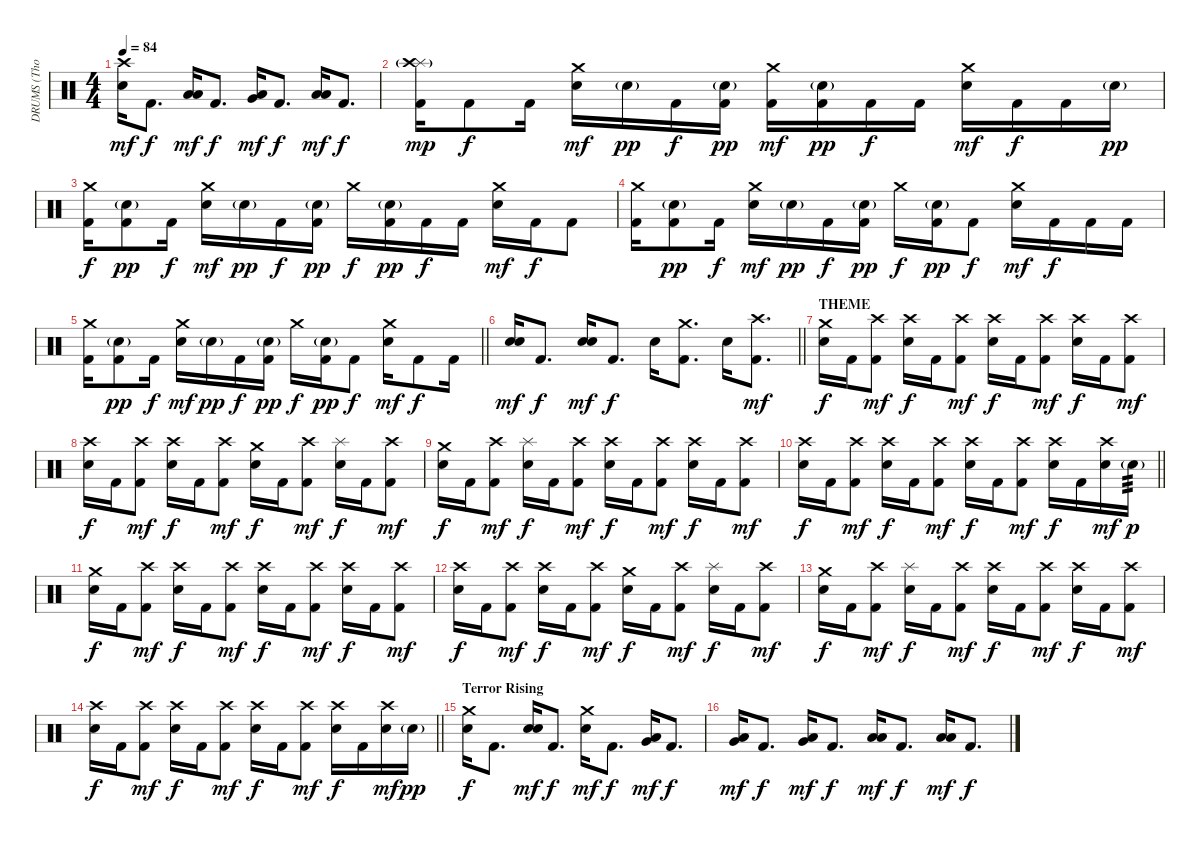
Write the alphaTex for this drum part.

\track ("DRUMS (Thomas Haake)" "DRUMS (Tho") {instrument percussion}
\staff {score}
\articulation defaults
\ts (4 4)
\tempo 84
\clef neutral
\ks c
("Crash high (hit)" "Electric Snare (hit)").16{dy mf} "Kick (hit) 2".8{d dy f} ("Low Tom (hit)" "Low Floor Tom (hit)").16{bd 30 dy mf} "Kick (hit) 2".8{d dy f} ("Very Low Tom (hit)" "Low Floor Tom (hit)").16{dy mf} "Kick (hit) 2".8{d dy f} ("Low Floor Tom (hit)" "Low Floor Tom (hit)").16{dy mf} "Kick (hit) 2".8{d dy f} |
("Splash (hit)" "Crash high (hit)"{g} "Kick (hit) 2").16{dy mp} "Kick (hit) 2".8{dy f} "Kick (hit) 2".16 ("Crash medium (hit)" "Electric Snare (hit)").16{dy mf} "Electric Snare (hit)"{g}.16{dy pp} "Kick (hit) 2".16{dy f} ("Electric Snare (hit)"{g} "Kick (hit) 2").16{dy pp} ("Crash medium (hit)" "Kick (hit) 2").16{dy mf} ("Electric Snare (hit)"{g} "Kick (hit) 2").16{dy pp} "Kick (hit) 2".16{dy f} "Kick (hit) 2".16 ("Crash medium (hit)" "Electric Snare (hit)").16{dy mf} "Kick (hit) 2".16{dy f} "Kick (hit) 2".16 "Electric Snare (hit)"{g}.16{dy pp} |
("Crash medium (hit)" "Kick (hit) 2").16{dy f} ("Electric Snare (hit)"{g} "Kick (hit) 2").8{dy pp} "Kick (hit) 2".16{dy f} ("Crash medium (hit)" "Electric Snare (hit)").16{dy mf} "Electric Snare (hit)"{g}.16{dy pp} "Kick (hit) 2".16{dy f} ("Electric Snare (hit)"{g} "Kick (hit) 2").16{dy pp} "Crash medium (hit)".16{dy f} ("Electric Snare (hit)"{g} "Kick (hit) 2").16{dy pp} "Kick (hit) 2".16{dy f} "Kick (hit) 2".16 ("Crash medium (hit)" "Electric Snare (hit)").16{dy mf} "Kick (hit) 2".16{dy f} "Kick (hit) 2".8 |
("Crash medium (hit)" "Kick (hit) 2").16 ("Electric Snare (hit)"{g} "Kick (hit) 2").8{dy pp} "Kick (hit) 2".16{dy f} ("Crash medium (hit)" "Electric Snare (hit)").16{dy mf} "Electric Snare (hit)"{g}.16{dy pp} "Kick (hit) 2".16{dy f} ("Electric Snare (hit)"{g} "Kick (hit) 2").16{dy pp} "Crash medium (hit)".16{dy f} ("Electric Snare (hit)"{g} "Kick (hit) 2").16{dy pp} "Kick (hit) 2".8{dy f} ("Crash medium (hit)" "Electric Snare (hit)").16{dy mf} "Kick (hit) 2".16{dy f} "Kick (hit) 2".16 "Kick (hit) 2".16 |
\barLineRight lightlight
("Crash medium (hit)" "Kick (hit) 2").16 ("Electric Snare (hit)"{g} "Kick (hit) 2").8{dy pp} "Kick (hit) 2".16{dy f} ("Crash medium (hit)" "Electric Snare (hit)").16{dy mf} "Electric Snare (hit)"{g}.16{dy pp} "Kick (hit) 2".16{dy f} ("Electric Snare (hit)"{g} "Kick (hit) 2").16{dy pp} "Crash medium (hit)".16{dy f} ("Electric Snare (hit)"{g} "Kick (hit) 2").16{dy pp} "Kick (hit) 2".8{dy f} ("Crash medium (hit)" "Electric Snare (hit)").16{dy mf} "Kick (hit) 2".8{dy f} "Kick (hit) 2".16 |
\barLineRight lightlight
("Electric Snare (hit)" "Electric Snare (hit)").16{bd 240 dy mf} "Kick (hit) 2".8{d dy f} ("Electric Snare (hit)" "Electric Snare (hit)").16{bd 240 dy mf} "Kick (hit) 2".8{d dy f} "Electric Snare (hit)".16 ("Crash medium (hit)" "Kick (hit) 2").8{d} "Electric Snare (hit)".16 ("Crash high (hit)" "Kick (hit) 2").8{d dy mf} |
\section ("" "THEME")
("Crash medium (hit)" "Electric Snare (hit)").16{dy f} "Kick (hit) 2".16 ("Crash high (hit)" "Kick (hit) 2").8{dy mf} ("Crash high (hit)" "Electric Snare (hit)").16{dy f} "Kick (hit) 2".16 ("Crash high (hit)" "Kick (hit) 2").8{dy mf} ("Crash high (hit)" "Electric Snare (hit)").16{dy f} "Kick (hit) 2".16 ("Crash high (hit)" "Kick (hit) 2").8{dy mf} ("Crash high (hit)" "Electric Snare (hit)").16{dy f} "Kick (hit) 2".16 ("Crash high (hit)" "Kick (hit) 2").8{dy mf} |
("Crash high (hit)" "Electric Snare (hit)").16{dy f} "Kick (hit) 2".16 ("Crash high (hit)" "Kick (hit) 2").8{dy mf} ("Crash high (hit)" "Electric Snare (hit)").16{dy f} "Kick (hit) 2".16 ("Crash high (hit)" "Kick (hit) 2").8{dy mf} ("Crash medium (hit)" "Electric Snare (hit)").16{dy f} "Kick (hit) 2".16 ("Crash high (hit)" "Kick (hit) 2").8{dy mf} ("Splash (hit)" "Electric Snare (hit)").16{dy f} "Kick (hit) 2".16 ("Crash high (hit)" "Kick (hit) 2").8{dy mf} |
("Crash medium (hit)" "Electric Snare (hit)").16{dy f} "Kick (hit) 2".16 ("Crash high (hit)" "Kick (hit) 2").8{dy mf} ("Splash (hit)" "Electric Snare (hit)").16{dy f} "Kick (hit) 2".16 ("Crash high (hit)" "Kick (hit) 2").8{dy mf} ("Crash high (hit)" "Electric Snare (hit)").16{dy f} "Kick (hit) 2".16 ("Crash high (hit)" "Kick (hit) 2").8{dy mf} ("Crash high (hit)" "Electric Snare (hit)").16{dy f} "Kick (hit) 2".16 ("Crash high (hit)" "Kick (hit) 2").8{dy mf} |
\barLineRight lightlight
("Crash high (hit)" "Electric Snare (hit)").16{dy f} "Kick (hit) 2".16 ("Crash high (hit)" "Kick (hit) 2").8{dy mf} ("Crash high (hit)" "Electric Snare (hit)").16{dy f} "Kick (hit) 2".16 ("Crash high (hit)" "Kick (hit) 2").8{dy mf} ("Crash high (hit)" "Electric Snare (hit)").16{dy f} "Kick (hit) 2".16 ("Crash high (hit)" "Kick (hit) 2").8{dy mf} ("Crash high (hit)" "Electric Snare (hit)").16{dy f} "Kick (hit) 2".16 ("Crash high (hit)" "Electric Snare (hit)").16{dy mf} "Electric Snare (hit)"{g}.16{tp 3 dy p} |
("Crash medium (hit)" "Electric Snare (hit)").16{dy f} "Kick (hit) 2".16 ("Crash high (hit)" "Kick (hit) 2").8{dy mf} ("Crash high (hit)" "Electric Snare (hit)").16{dy f} "Kick (hit) 2".16 ("Crash high (hit)" "Kick (hit) 2").8{dy mf} ("Crash high (hit)" "Electric Snare (hit)").16{dy f} "Kick (hit) 2".16 ("Crash high (hit)" "Kick (hit) 2").8{dy mf} ("Crash high (hit)" "Electric Snare (hit)").16{dy f} "Kick (hit) 2".16 ("Crash high (hit)" "Kick (hit) 2").8{dy mf} |
("Crash high (hit)" "Electric Snare (hit)").16{dy f} "Kick (hit) 2".16 ("Crash high (hit)" "Kick (hit) 2").8{dy mf} ("Crash high (hit)" "Electric Snare (hit)").16{dy f} "Kick (hit) 2".16 ("Crash high (hit)" "Kick (hit) 2").8{dy mf} ("Crash medium (hit)" "Electric Snare (hit)").16{dy f} "Kick (hit) 2".16 ("Crash high (hit)" "Kick (hit) 2").8{dy mf} ("Splash (hit)" "Electric Snare (hit)").16{dy f} "Kick (hit) 2".16 ("Crash high (hit)" "Kick (hit) 2").8{dy mf} |
("Crash medium (hit)" "Electric Snare (hit)").16{dy f} "Kick (hit) 2".16 ("Crash high (hit)" "Kick (hit) 2").8{dy mf} ("Splash (hit)" "Electric Snare (hit)").16{dy f} "Kick (hit) 2".16 ("Crash high (hit)" "Kick (hit) 2").8{dy mf} ("Crash high (hit)" "Electric Snare (hit)").16{dy f} "Kick (hit) 2".16 ("Crash high (hit)" "Kick (hit) 2").8{dy mf} ("Crash high (hit)" "Electric Snare (hit)").16{dy f} "Kick (hit) 2".16 ("Crash high (hit)" "Kick (hit) 2").8{dy mf} |
\barLineRight lightlight
("Crash high (hit)" "Electric Snare (hit)").16{dy f} "Kick (hit) 2".16 ("Crash high (hit)" "Kick (hit) 2").8{dy mf} ("Crash high (hit)" "Electric Snare (hit)").16{dy f} "Kick (hit) 2".16 ("Crash high (hit)" "Kick (hit) 2").8{dy mf} ("Crash high (hit)" "Electric Snare (hit)").16{dy f} "Kick (hit) 2".16 ("Crash high (hit)" "Kick (hit) 2").8{dy mf} ("Crash high (hit)" "Electric Snare (hit)").16{dy f} "Kick (hit) 2".16 ("Crash high (hit)" "Electric Snare (hit)").16{dy mf} "Electric Snare (hit)"{g}.16{dy pp} |
\section ("" "Terror Rising")
("Crash medium (hit)" "Electric Snare (hit)").16{dy f} "Kick (hit) 2".8{d} ("Electric Snare (hit)" "Electric Snare (hit)").16{bd 240 dy mf} "Kick (hit) 2".8{d dy f} ("Crash medium (hit)" "Electric Snare (hit)").16{dy mf} "Kick (hit) 2".8{d dy f} ("Very Low Tom (hit)" "Low Floor Tom (hit)").16{bd 240 dy mf} "Kick (hit) 2".8{d dy f} |
("Low Tom (hit)" "Very Low Tom (hit)").16{bd 30 dy mf} "Kick (hit) 2".8{d dy f} ("Very Low Tom (hit)" "Low Floor Tom (hit)").16{bd 30 dy mf} "Kick (hit) 2".8{d dy f} ("Low Floor Tom (hit)" "Low Floor Tom (hit)").16{bd 30 dy mf} "Kick (hit) 2".8{d dy f} ("Low Floor Tom (hit)" "Low Floor Tom (hit)").16{bd 30 dy mf} "Kick (hit) 2".8{d dy f}
